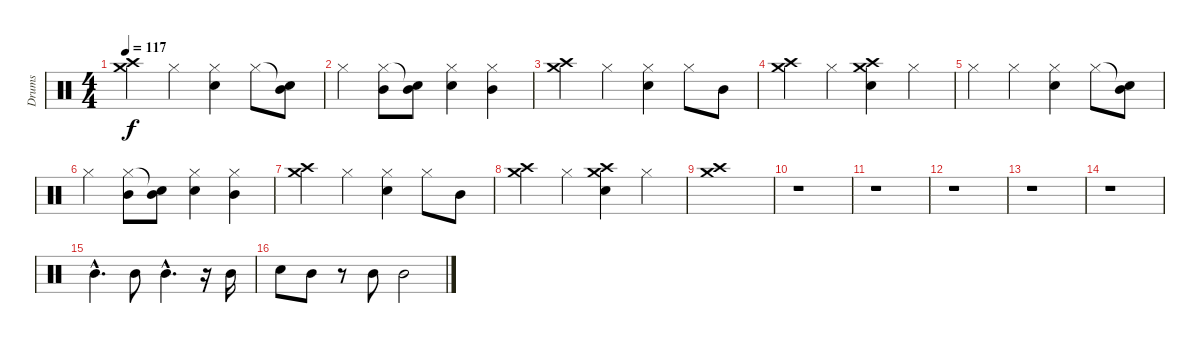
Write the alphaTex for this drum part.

\track ("Drums" "Drums") {instrument percussion}
\staff {score}
\articulation defaults
\ts (4 4)
\tempo 117
\clef neutral
\ks c
("Crash high (hit)" "Crash medium (hit)").4{dy f} "Hi-Hat (closed)".4 ("Hi-Hat (closed)" "Electric Snare (hit)").4 "Hi-Hat (closed)".8 ("Snare (hit)"{t} "Mid Tom (hit)").8 |
"Hi-Hat (closed)".4 ("Hi-Hat (closed)" "Mid Tom (hit)").8 ("Snare (hit)"{t} "Mid Tom (hit)").8 ("Hi-Hat (closed)" "Electric Snare (hit)").4 ("Hi-Hat (closed)" "Mid Tom (hit)").4 |
("Crash high (hit)" "Crash medium (hit)").4 "Hi-Hat (closed)".4 ("Hi-Hat (closed)" "Electric Snare (hit)").4 "Hi-Hat (closed)".8 "Mid Tom (hit)".8 |
("Crash high (hit)" "Crash medium (hit)").4 "Hi-Hat (closed)".4 ("Crash high (hit)" "Crash medium (hit)" "Electric Snare (hit)").4 "Hi-Hat (closed)".4 |
"Hi-Hat (closed)".4 "Hi-Hat (closed)".4 ("Hi-Hat (closed)" "Electric Snare (hit)").4 "Hi-Hat (closed)".8 ("Snare (hit)"{t} "Mid Tom (hit)").8 |
"Hi-Hat (closed)".4 ("Hi-Hat (closed)" "Mid Tom (hit)").8 ("Snare (hit)"{t} "Mid Tom (hit)").8 ("Hi-Hat (closed)" "Electric Snare (hit)").4 ("Hi-Hat (closed)" "Mid Tom (hit)").4 |
("Crash high (hit)" "Crash medium (hit)").4 "Hi-Hat (closed)".4 ("Hi-Hat (closed)" "Electric Snare (hit)").4 "Hi-Hat (closed)".8 "Mid Tom (hit)".8 |
("Crash high (hit)" "Crash medium (hit)").4 "Hi-Hat (closed)".4 ("Crash high (hit)" "Crash medium (hit)" "Electric Snare (hit)").4 "Hi-Hat (closed)".4 |
("Crash high (hit)" "Crash medium (hit)").1 |
r.1 |
r.1 |
r.1 |
r.1 |
r.1 |
"Mid Tom (hit)"{hac}.4{d} "Mid Tom (hit)".8 "Mid Tom (hit)"{hac}.4{d} r.16 "Mid Tom (hit)".16 |
"Electric Snare (hit)".8 "Mid Tom (hit)".8 r.8 "Mid Tom (hit)".8 "Mid Tom (hit)".2
